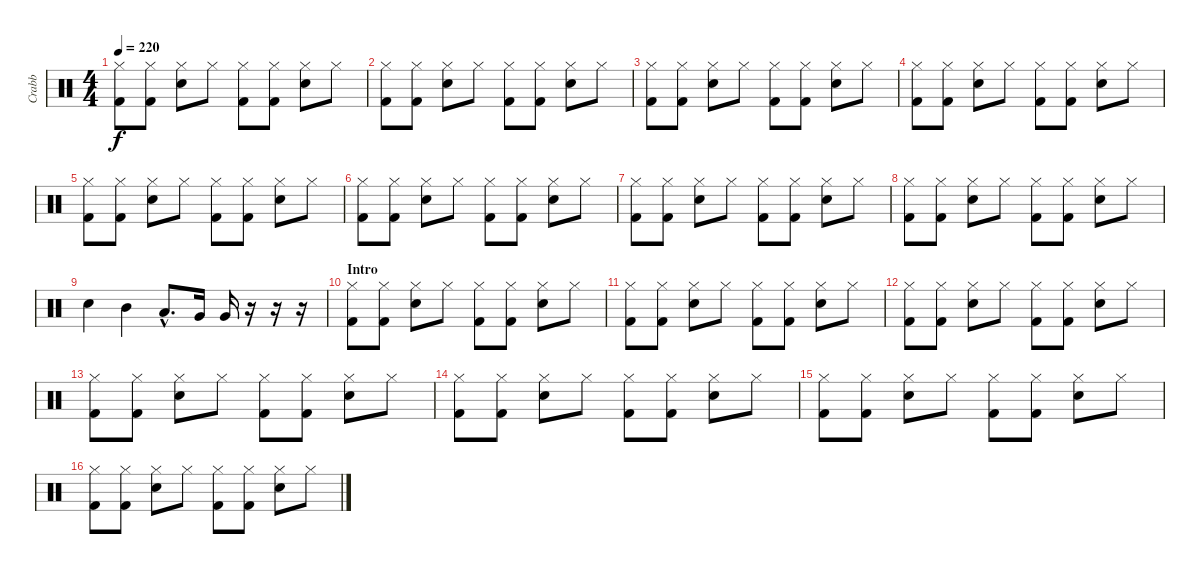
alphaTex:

\track ("Crabb" "Crabb") {instrument percussion}
\staff {score}
\articulation defaults
\ts (4 4)
\tempo 220
\clef neutral
\ks c
("Hi-Hat (closed)" "Kick (hit) 2").8{dy f} ("Hi-Hat (closed)" "Kick (hit) 2").8 ("Hi-Hat (closed)" "Electric Snare (hit)").8 "Hi-Hat (closed)".8 ("Hi-Hat (closed)" "Kick (hit) 2").8 ("Hi-Hat (closed)" "Kick (hit) 2").8 ("Hi-Hat (closed)" "Electric Snare (hit)").8 "Hi-Hat (closed)".8 |
("Hi-Hat (closed)" "Kick (hit) 2").8 ("Hi-Hat (closed)" "Kick (hit) 2").8 ("Hi-Hat (closed)" "Electric Snare (hit)").8 "Hi-Hat (closed)".8 ("Hi-Hat (closed)" "Kick (hit) 2").8 ("Hi-Hat (closed)" "Kick (hit) 2").8 ("Hi-Hat (closed)" "Electric Snare (hit)").8 "Hi-Hat (closed)".8 |
("Hi-Hat (closed)" "Kick (hit) 2").8 ("Hi-Hat (closed)" "Kick (hit) 2").8 ("Hi-Hat (closed)" "Electric Snare (hit)").8 "Hi-Hat (closed)".8 ("Hi-Hat (closed)" "Kick (hit) 2").8 ("Hi-Hat (closed)" "Kick (hit) 2").8 ("Hi-Hat (closed)" "Electric Snare (hit)").8 "Hi-Hat (closed)".8 |
("Hi-Hat (closed)" "Kick (hit) 2").8 ("Hi-Hat (closed)" "Kick (hit) 2").8 ("Hi-Hat (closed)" "Electric Snare (hit)").8 "Hi-Hat (closed)".8 ("Hi-Hat (closed)" "Kick (hit) 2").8 ("Hi-Hat (closed)" "Kick (hit) 2").8 ("Hi-Hat (closed)" "Electric Snare (hit)").8 "Hi-Hat (closed)".8 |
("Hi-Hat (closed)" "Kick (hit) 2").8 ("Hi-Hat (closed)" "Kick (hit) 2").8 ("Hi-Hat (closed)" "Electric Snare (hit)").8 "Hi-Hat (closed)".8 ("Hi-Hat (closed)" "Kick (hit) 2").8 ("Hi-Hat (closed)" "Kick (hit) 2").8 ("Hi-Hat (closed)" "Electric Snare (hit)").8 "Hi-Hat (closed)".8 |
("Hi-Hat (closed)" "Kick (hit) 2").8 ("Hi-Hat (closed)" "Kick (hit) 2").8 ("Hi-Hat (closed)" "Electric Snare (hit)").8 "Hi-Hat (closed)".8 ("Hi-Hat (closed)" "Kick (hit) 2").8 ("Hi-Hat (closed)" "Kick (hit) 2").8 ("Hi-Hat (closed)" "Electric Snare (hit)").8 "Hi-Hat (closed)".8 |
("Hi-Hat (closed)" "Kick (hit) 2").8 ("Hi-Hat (closed)" "Kick (hit) 2").8 ("Hi-Hat (closed)" "Electric Snare (hit)").8 "Hi-Hat (closed)".8 ("Hi-Hat (closed)" "Kick (hit) 2").8 ("Hi-Hat (closed)" "Kick (hit) 2").8 ("Hi-Hat (closed)" "Electric Snare (hit)").8 "Hi-Hat (closed)".8 |
("Hi-Hat (closed)" "Kick (hit) 2").8 ("Hi-Hat (closed)" "Kick (hit) 2").8 ("Hi-Hat (closed)" "Electric Snare (hit)").8 "Hi-Hat (closed)".8 ("Hi-Hat (closed)" "Kick (hit) 2").8 ("Hi-Hat (closed)" "Kick (hit) 2").8 ("Hi-Hat (closed)" "Electric Snare (hit)").8 "Hi-Hat (closed)".8 |
"Electric Snare (hit)".4 "Mid Tom (hit)".4 "Low Tom (hit)"{hac}.8{d} "Very Low Tom (hit)".16 "Very Low Tom (hit)".16 r.16 r.16 r.16 |
\section ("" "Intro")
("Hi-Hat (closed)" "Kick (hit) 2").8 ("Hi-Hat (closed)" "Kick (hit) 2").8 ("Hi-Hat (closed)" "Electric Snare (hit)").8 "Hi-Hat (closed)".8 ("Hi-Hat (closed)" "Kick (hit) 2").8 ("Hi-Hat (closed)" "Kick (hit) 2").8 ("Hi-Hat (closed)" "Electric Snare (hit)").8 "Hi-Hat (closed)".8 |
("Hi-Hat (closed)" "Kick (hit) 2").8 ("Hi-Hat (closed)" "Kick (hit) 2").8 ("Hi-Hat (closed)" "Electric Snare (hit)").8 "Hi-Hat (closed)".8 ("Hi-Hat (closed)" "Kick (hit) 2").8 ("Hi-Hat (closed)" "Kick (hit) 2").8 ("Hi-Hat (closed)" "Electric Snare (hit)").8 "Hi-Hat (closed)".8 |
("Hi-Hat (closed)" "Kick (hit) 2").8 ("Hi-Hat (closed)" "Kick (hit) 2").8 ("Hi-Hat (closed)" "Electric Snare (hit)").8 "Hi-Hat (closed)".8 ("Hi-Hat (closed)" "Kick (hit) 2").8 ("Hi-Hat (closed)" "Kick (hit) 2").8 ("Hi-Hat (closed)" "Electric Snare (hit)").8 "Hi-Hat (closed)".8 |
("Hi-Hat (closed)" "Kick (hit) 2").8 ("Hi-Hat (closed)" "Kick (hit) 2").8 ("Hi-Hat (closed)" "Electric Snare (hit)").8 "Hi-Hat (closed)".8 ("Hi-Hat (closed)" "Kick (hit) 2").8 ("Hi-Hat (closed)" "Kick (hit) 2").8 ("Hi-Hat (closed)" "Electric Snare (hit)").8 "Hi-Hat (closed)".8 |
("Hi-Hat (closed)" "Kick (hit) 2").8 ("Hi-Hat (closed)" "Kick (hit) 2").8 ("Hi-Hat (closed)" "Electric Snare (hit)").8 "Hi-Hat (closed)".8 ("Hi-Hat (closed)" "Kick (hit) 2").8 ("Hi-Hat (closed)" "Kick (hit) 2").8 ("Hi-Hat (closed)" "Electric Snare (hit)").8 "Hi-Hat (closed)".8 |
("Hi-Hat (closed)" "Kick (hit) 2").8 ("Hi-Hat (closed)" "Kick (hit) 2").8 ("Hi-Hat (closed)" "Electric Snare (hit)").8 "Hi-Hat (closed)".8 ("Hi-Hat (closed)" "Kick (hit) 2").8 ("Hi-Hat (closed)" "Kick (hit) 2").8 ("Hi-Hat (closed)" "Electric Snare (hit)").8 "Hi-Hat (closed)".8 |
("Hi-Hat (closed)" "Kick (hit) 2").8 ("Hi-Hat (closed)" "Kick (hit) 2").8 ("Hi-Hat (closed)" "Electric Snare (hit)").8 "Hi-Hat (closed)".8 ("Hi-Hat (closed)" "Kick (hit) 2").8 ("Hi-Hat (closed)" "Kick (hit) 2").8 ("Hi-Hat (closed)" "Electric Snare (hit)").8 "Hi-Hat (closed)".8
